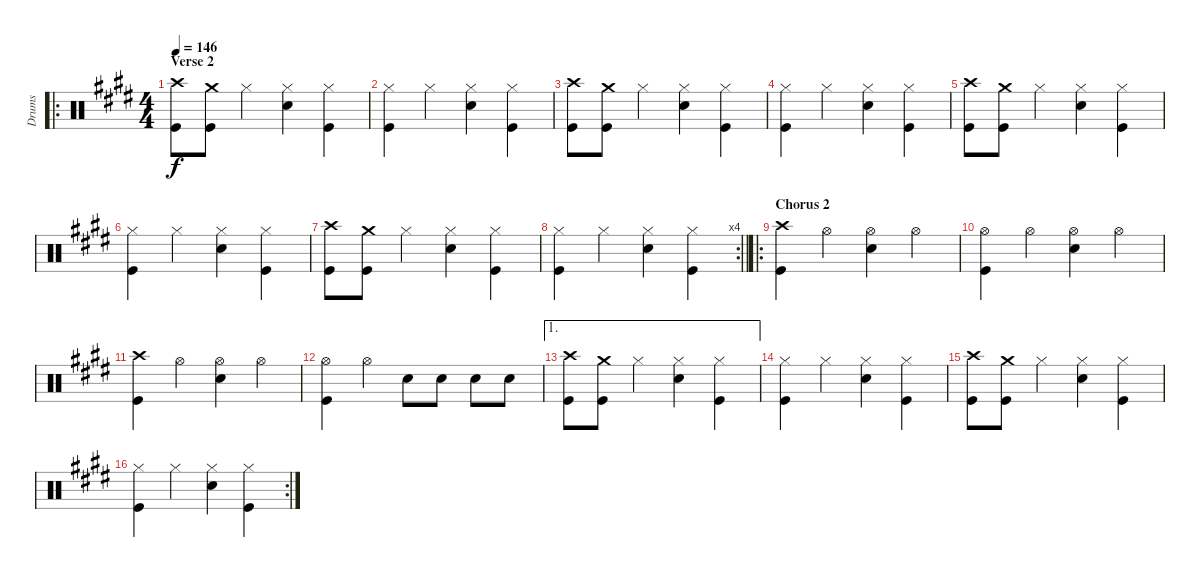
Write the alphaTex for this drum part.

\track ("Drums" "Drums") {instrument percussion}
\staff {score}
\articulation defaults
\ro
\ts (4 4)
\section ("" "Verse 2")
\tempo 146
\clef neutral
\ks e
("Crash high (hit)" "Kick (hit)").8{dy f} ("Crash medium (hit)" "Kick (hit)").8 "Hi-Hat (closed)".4 ("Hi-Hat (closed)" "Snare (hit) 2").4 ("Hi-Hat (closed)" "Kick (hit)").4 |
("Hi-Hat (closed)" "Kick (hit)").4 "Hi-Hat (closed)".4 ("Hi-Hat (closed)" "Snare (hit) 2").4 ("Hi-Hat (closed)" "Kick (hit)").4 |
("Crash high (hit)" "Kick (hit)").8 ("Crash medium (hit)" "Kick (hit)").8 "Hi-Hat (closed)".4 ("Hi-Hat (closed)" "Snare (hit) 2").4 ("Hi-Hat (closed)" "Kick (hit)").4 |
("Hi-Hat (closed)" "Kick (hit)").4 "Hi-Hat (closed)".4 ("Hi-Hat (closed)" "Snare (hit) 2").4 ("Hi-Hat (closed)" "Kick (hit)").4 |
("Crash high (hit)" "Kick (hit)").8 ("Crash medium (hit)" "Kick (hit)").8 "Hi-Hat (closed)".4 ("Hi-Hat (closed)" "Snare (hit) 2").4 ("Hi-Hat (closed)" "Kick (hit)").4 |
("Hi-Hat (closed)" "Kick (hit)").4 "Hi-Hat (closed)".4 ("Hi-Hat (closed)" "Snare (hit) 2").4 ("Hi-Hat (closed)" "Kick (hit)").4 |
("Crash high (hit)" "Kick (hit)").8 ("Crash medium (hit)" "Kick (hit)").8 "Hi-Hat (closed)".4 ("Hi-Hat (closed)" "Snare (hit) 2").4 ("Hi-Hat (closed)" "Kick (hit)").4 |
\rc 4
\barLineRight lightlight
("Hi-Hat (closed)" "Kick (hit)").4 "Hi-Hat (closed)".4 ("Hi-Hat (closed)" "Snare (hit) 2").4 ("Hi-Hat (closed)" "Kick (hit)").4 |
\ro
\section ("" "Chorus 2")
("Crash high (hit)" "Kick (hit)").4 "Hi-Hat (open)".4 ("Hi-Hat (open)" "Snare (hit) 2").4 "Hi-Hat (open)".4 |
("Hi-Hat (open)" "Kick (hit)").4 "Hi-Hat (open)".4 ("Hi-Hat (open)" "Snare (hit) 2").4 "Hi-Hat (open)".4 |
("Crash high (hit)" "Kick (hit)").4 "Hi-Hat (open)".4 ("Hi-Hat (open)" "Snare (hit) 2").4 "Hi-Hat (open)".4 |
("Hi-Hat (open)" "Kick (hit)").4 "Hi-Hat (open)".4 "Snare (hit) 2".8 "Snare (hit) 2".8 "Snare (hit) 2".8 "Snare (hit) 2".8 |
\ae 1
("Crash high (hit)" "Kick (hit)").8 ("Crash medium (hit)" "Kick (hit)").8 "Hi-Hat (closed)".4 ("Hi-Hat (closed)" "Snare (hit) 2").4 ("Hi-Hat (closed)" "Kick (hit)").4 |
("Hi-Hat (closed)" "Kick (hit)").4 "Hi-Hat (closed)".4 ("Hi-Hat (closed)" "Snare (hit) 2").4 ("Hi-Hat (closed)" "Kick (hit)").4 |
("Crash high (hit)" "Kick (hit)").8 ("Crash medium (hit)" "Kick (hit)").8 "Hi-Hat (closed)".4 ("Hi-Hat (closed)" "Snare (hit) 2").4 ("Hi-Hat (closed)" "Kick (hit)").4 |
\rc 2
("Hi-Hat (closed)" "Kick (hit)").4 "Hi-Hat (closed)".4 ("Hi-Hat (closed)" "Snare (hit) 2").4 ("Hi-Hat (closed)" "Kick (hit)").4
